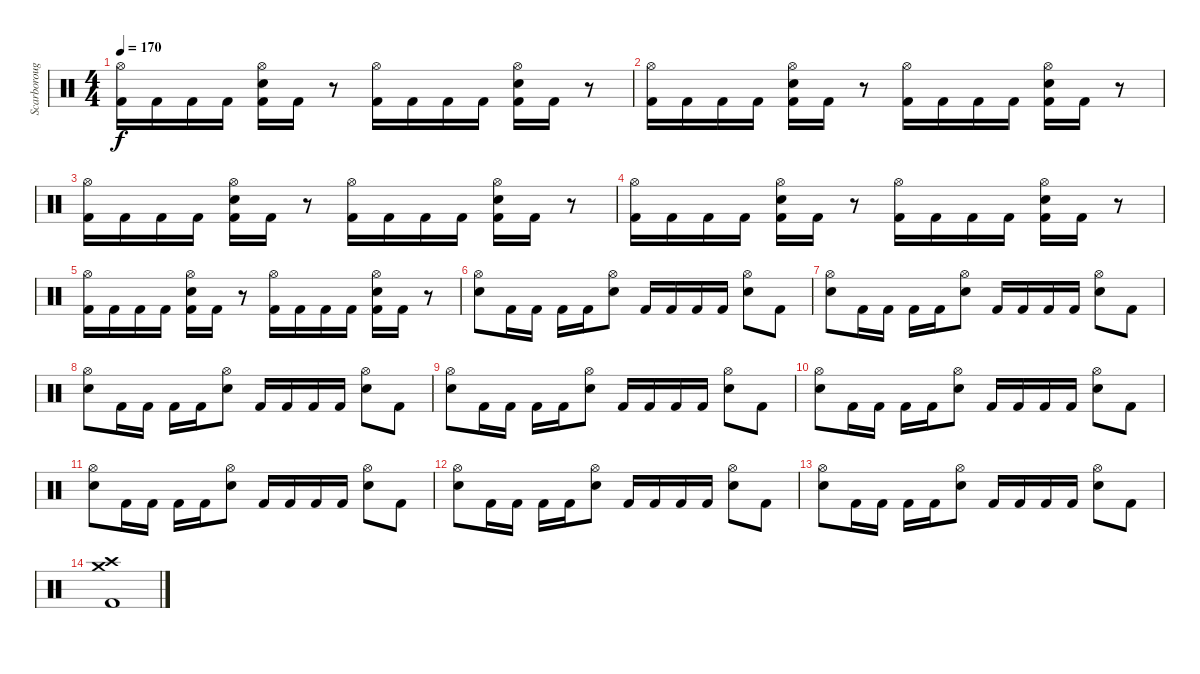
\track ("Scarborough" "Scarboroug") {instrument percussion}
\staff {score}
\articulation defaults
\ts (4 4)
\tempo 170
\clef neutral
\ks c
("Hi-Hat (open)" "Kick (hit) 2").16{dy f} "Kick (hit) 2".16 "Kick (hit) 2".16 "Kick (hit) 2".16 ("Hi-Hat (open)" "Kick (hit) 2" "Snare (hit) 2").16 "Kick (hit) 2".16 r.8 ("Hi-Hat (open)" "Kick (hit) 2").16 "Kick (hit) 2".16 "Kick (hit) 2".16 "Kick (hit) 2".16 ("Hi-Hat (open)" "Kick (hit) 2" "Snare (hit) 2").16 "Kick (hit) 2".16 r.8 |
("Hi-Hat (open)" "Kick (hit) 2").16 "Kick (hit) 2".16 "Kick (hit) 2".16 "Kick (hit) 2".16 ("Hi-Hat (open)" "Kick (hit) 2" "Snare (hit) 2").16 "Kick (hit) 2".16 r.8 ("Hi-Hat (open)" "Kick (hit) 2").16 "Kick (hit) 2".16 "Kick (hit) 2".16 "Kick (hit) 2".16 ("Hi-Hat (open)" "Kick (hit) 2" "Snare (hit) 2").16 "Kick (hit) 2".16 r.8 |
("Hi-Hat (open)" "Kick (hit) 2").16 "Kick (hit) 2".16 "Kick (hit) 2".16 "Kick (hit) 2".16 ("Hi-Hat (open)" "Kick (hit) 2" "Snare (hit) 2").16 "Kick (hit) 2".16 r.8 ("Hi-Hat (open)" "Kick (hit) 2").16 "Kick (hit) 2".16 "Kick (hit) 2".16 "Kick (hit) 2".16 ("Hi-Hat (open)" "Kick (hit) 2" "Snare (hit) 2").16 "Kick (hit) 2".16 r.8 |
("Hi-Hat (open)" "Kick (hit) 2").16 "Kick (hit) 2".16 "Kick (hit) 2".16 "Kick (hit) 2".16 ("Hi-Hat (open)" "Kick (hit) 2" "Snare (hit) 2").16 "Kick (hit) 2".16 r.8 ("Hi-Hat (open)" "Kick (hit) 2").16 "Kick (hit) 2".16 "Kick (hit) 2".16 "Kick (hit) 2".16 ("Hi-Hat (open)" "Kick (hit) 2" "Snare (hit) 2").16 "Kick (hit) 2".16 r.8 |
("Hi-Hat (open)" "Kick (hit) 2").16 "Kick (hit) 2".16 "Kick (hit) 2".16 "Kick (hit) 2".16 ("Hi-Hat (open)" "Kick (hit) 2" "Snare (hit) 2").16 "Kick (hit) 2".16 r.8 ("Hi-Hat (open)" "Kick (hit) 2").16 "Kick (hit) 2".16 "Kick (hit) 2".16 "Kick (hit) 2".16 ("Hi-Hat (open)" "Kick (hit) 2" "Snare (hit) 2").16 "Kick (hit) 2".16 r.8 |
("Snare (hit) 2" "Hi-Hat (open)").8 "Kick (hit) 2".16 "Kick (hit) 2".16 "Kick (hit) 2".16 "Kick (hit) 2".16 ("Snare (hit) 2" "Hi-Hat (open)").8 "Kick (hit) 2".16 "Kick (hit) 2".16 "Kick (hit) 2".16 "Kick (hit) 2".16 ("Snare (hit) 2" "Hi-Hat (open)").8 "Kick (hit) 2".8 |
("Snare (hit) 2" "Hi-Hat (open)").8 "Kick (hit) 2".16 "Kick (hit) 2".16 "Kick (hit) 2".16 "Kick (hit) 2".16 ("Snare (hit) 2" "Hi-Hat (open)").8 "Kick (hit) 2".16 "Kick (hit) 2".16 "Kick (hit) 2".16 "Kick (hit) 2".16 ("Snare (hit) 2" "Hi-Hat (open)").8 "Kick (hit) 2".8 |
("Snare (hit) 2" "Hi-Hat (open)").8 "Kick (hit) 2".16 "Kick (hit) 2".16 "Kick (hit) 2".16 "Kick (hit) 2".16 ("Snare (hit) 2" "Hi-Hat (open)").8 "Kick (hit) 2".16 "Kick (hit) 2".16 "Kick (hit) 2".16 "Kick (hit) 2".16 ("Snare (hit) 2" "Hi-Hat (open)").8 "Kick (hit) 2".8 |
("Snare (hit) 2" "Hi-Hat (open)").8 "Kick (hit) 2".16 "Kick (hit) 2".16 "Kick (hit) 2".16 "Kick (hit) 2".16 ("Snare (hit) 2" "Hi-Hat (open)").8 "Kick (hit) 2".16 "Kick (hit) 2".16 "Kick (hit) 2".16 "Kick (hit) 2".16 ("Snare (hit) 2" "Hi-Hat (open)").8 "Kick (hit) 2".8 |
("Snare (hit) 2" "Hi-Hat (open)").8 "Kick (hit) 2".16 "Kick (hit) 2".16 "Kick (hit) 2".16 "Kick (hit) 2".16 ("Snare (hit) 2" "Hi-Hat (open)").8 "Kick (hit) 2".16 "Kick (hit) 2".16 "Kick (hit) 2".16 "Kick (hit) 2".16 ("Snare (hit) 2" "Hi-Hat (open)").8 "Kick (hit) 2".8 |
("Snare (hit) 2" "Hi-Hat (open)").8 "Kick (hit) 2".16 "Kick (hit) 2".16 "Kick (hit) 2".16 "Kick (hit) 2".16 ("Snare (hit) 2" "Hi-Hat (open)").8 "Kick (hit) 2".16 "Kick (hit) 2".16 "Kick (hit) 2".16 "Kick (hit) 2".16 ("Snare (hit) 2" "Hi-Hat (open)").8 "Kick (hit) 2".8 |
("Snare (hit) 2" "Hi-Hat (open)").8 "Kick (hit) 2".16 "Kick (hit) 2".16 "Kick (hit) 2".16 "Kick (hit) 2".16 ("Snare (hit) 2" "Hi-Hat (open)").8 "Kick (hit) 2".16 "Kick (hit) 2".16 "Kick (hit) 2".16 "Kick (hit) 2".16 ("Snare (hit) 2" "Hi-Hat (open)").8 "Kick (hit) 2".8 |
("Snare (hit) 2" "Hi-Hat (open)").8 "Kick (hit) 2".16 "Kick (hit) 2".16 "Kick (hit) 2".16 "Kick (hit) 2".16 ("Snare (hit) 2" "Hi-Hat (open)").8 "Kick (hit) 2".16 "Kick (hit) 2".16 "Kick (hit) 2".16 "Kick (hit) 2".16 ("Snare (hit) 2" "Hi-Hat (open)").8 "Kick (hit) 2".8 |
("Crash medium (hit)" "Crash high (hit)" "Kick (hit) 2").1
